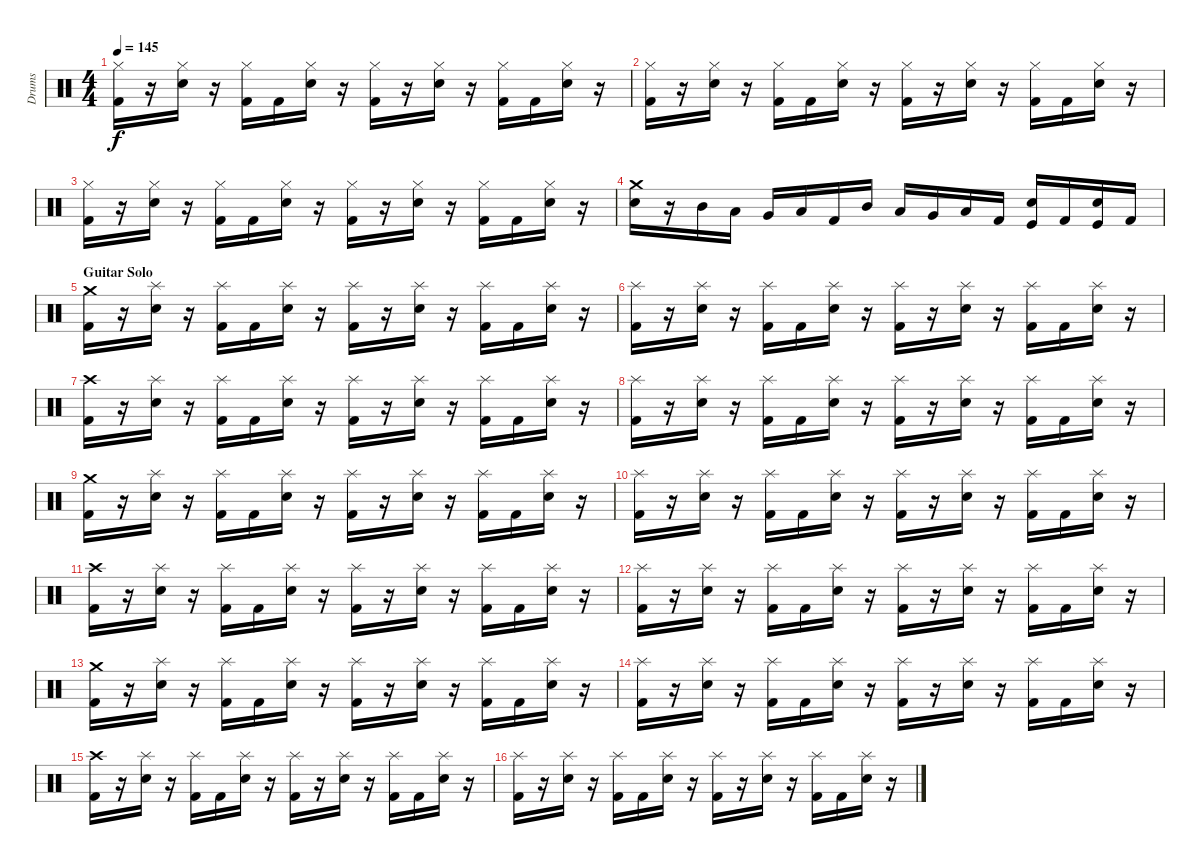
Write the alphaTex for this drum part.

\track ("Drums" "Drums") {instrument percussion}
\staff {score}
\articulation defaults
\ts (4 4)
\tempo 145
\clef neutral
\ks c
("Hi-Hat (closed)" "Kick (hit) 2").16{dy f} r.16 ("Hi-Hat (closed)" "Snare (hit) 2").16 r.16 ("Hi-Hat (closed)" "Kick (hit) 2").16 "Kick (hit) 2".16 ("Hi-Hat (closed)" "Snare (hit) 2").16 r.16 ("Hi-Hat (closed)" "Kick (hit) 2").16 r.16 ("Hi-Hat (closed)" "Snare (hit) 2").16 r.16 ("Hi-Hat (closed)" "Kick (hit) 2").16 "Kick (hit) 2".16 ("Hi-Hat (closed)" "Snare (hit) 2").16 r.16 |
("Hi-Hat (closed)" "Kick (hit) 2").16 r.16 ("Hi-Hat (closed)" "Snare (hit) 2").16 r.16 ("Hi-Hat (closed)" "Kick (hit) 2").16 "Kick (hit) 2".16 ("Hi-Hat (closed)" "Snare (hit) 2").16 r.16 ("Hi-Hat (closed)" "Kick (hit) 2").16 r.16 ("Hi-Hat (closed)" "Snare (hit) 2").16 r.16 ("Hi-Hat (closed)" "Kick (hit) 2").16 "Kick (hit) 2".16 ("Hi-Hat (closed)" "Snare (hit) 2").16 r.16 |
("Hi-Hat (closed)" "Kick (hit) 2").16 r.16 ("Hi-Hat (closed)" "Snare (hit) 2").16 r.16 ("Hi-Hat (closed)" "Kick (hit) 2").16 "Kick (hit) 2".16 ("Hi-Hat (closed)" "Snare (hit) 2").16 r.16 ("Hi-Hat (closed)" "Kick (hit) 2").16 r.16 ("Hi-Hat (closed)" "Snare (hit) 2").16 r.16 ("Hi-Hat (closed)" "Kick (hit) 2").16 "Kick (hit) 2".16 ("Hi-Hat (closed)" "Snare (hit) 2").16 r.16 |
("Crash medium (hit)" "Snare (hit) 2").16 r.16 "Mid Tom (hit)".16 "Low Tom (hit)".16 "Very Low Tom (hit)".16 "Low Floor Tom (hit)".16 "Kick (hit) 2".16 "Mid Tom (hit)".16 "Low Tom (hit)".16 "Very Low Tom (hit)".16 "Low Floor Tom (hit)".16 "Kick (hit) 2".16 ("Snare (hit) 2" "Kick (hit)").16 "Kick (hit) 2".16 ("Snare (hit) 2" "Kick (hit)").16 "Kick (hit) 2".16 |
\section ("" "Guitar Solo")
("Crash medium (hit)" "Kick (hit) 2").16 r.16 ("Splash (hit)" "Snare (hit) 2").16 r.16 ("Splash (hit)" "Kick (hit) 2").16 "Kick (hit) 2".16 ("Splash (hit)" "Snare (hit) 2").16 r.16 ("Splash (hit)" "Kick (hit) 2").16 r.16 ("Splash (hit)" "Snare (hit) 2").16 r.16 ("Splash (hit)" "Kick (hit) 2").16 "Kick (hit) 2".16 ("Splash (hit)" "Snare (hit) 2").16 r.16 |
("Splash (hit)" "Kick (hit) 2").16 r.16 ("Splash (hit)" "Snare (hit) 2").16 r.16 ("Splash (hit)" "Kick (hit) 2").16 "Kick (hit) 2".16 ("Splash (hit)" "Snare (hit) 2").16 r.16 ("Splash (hit)" "Kick (hit) 2").16 r.16 ("Splash (hit)" "Snare (hit) 2").16 r.16 ("Splash (hit)" "Kick (hit) 2").16 "Kick (hit) 2".16 ("Splash (hit)" "Snare (hit) 2").16 r.16 |
("Crash high (hit)" "Kick (hit) 2").16 r.16 ("Splash (hit)" "Snare (hit) 2").16 r.16 ("Splash (hit)" "Kick (hit) 2").16 "Kick (hit) 2".16 ("Splash (hit)" "Snare (hit) 2").16 r.16 ("Splash (hit)" "Kick (hit) 2").16 r.16 ("Splash (hit)" "Snare (hit) 2").16 r.16 ("Splash (hit)" "Kick (hit) 2").16 "Kick (hit) 2".16 ("Splash (hit)" "Snare (hit) 2").16 r.16 |
("Splash (hit)" "Kick (hit) 2").16 r.16 ("Splash (hit)" "Snare (hit) 2").16 r.16 ("Splash (hit)" "Kick (hit) 2").16 "Kick (hit) 2".16 ("Splash (hit)" "Snare (hit) 2").16 r.16 ("Splash (hit)" "Kick (hit) 2").16 r.16 ("Splash (hit)" "Snare (hit) 2").16 r.16 ("Splash (hit)" "Kick (hit) 2").16 "Kick (hit) 2".16 ("Splash (hit)" "Snare (hit) 2").16 r.16 |
("Crash medium (hit)" "Kick (hit) 2").16 r.16 ("Splash (hit)" "Snare (hit) 2").16 r.16 ("Splash (hit)" "Kick (hit) 2").16 "Kick (hit) 2".16 ("Splash (hit)" "Snare (hit) 2").16 r.16 ("Splash (hit)" "Kick (hit) 2").16 r.16 ("Splash (hit)" "Snare (hit) 2").16 r.16 ("Splash (hit)" "Kick (hit) 2").16 "Kick (hit) 2".16 ("Splash (hit)" "Snare (hit) 2").16 r.16 |
("Splash (hit)" "Kick (hit) 2").16 r.16 ("Splash (hit)" "Snare (hit) 2").16 r.16 ("Splash (hit)" "Kick (hit) 2").16 "Kick (hit) 2".16 ("Splash (hit)" "Snare (hit) 2").16 r.16 ("Splash (hit)" "Kick (hit) 2").16 r.16 ("Splash (hit)" "Snare (hit) 2").16 r.16 ("Splash (hit)" "Kick (hit) 2").16 "Kick (hit) 2".16 ("Splash (hit)" "Snare (hit) 2").16 r.16 |
("Crash high (hit)" "Kick (hit) 2").16 r.16 ("Splash (hit)" "Snare (hit) 2").16 r.16 ("Splash (hit)" "Kick (hit) 2").16 "Kick (hit) 2".16 ("Splash (hit)" "Snare (hit) 2").16 r.16 ("Splash (hit)" "Kick (hit) 2").16 r.16 ("Splash (hit)" "Snare (hit) 2").16 r.16 ("Splash (hit)" "Kick (hit) 2").16 "Kick (hit) 2".16 ("Splash (hit)" "Snare (hit) 2").16 r.16 |
("Splash (hit)" "Kick (hit) 2").16 r.16 ("Splash (hit)" "Snare (hit) 2").16 r.16 ("Splash (hit)" "Kick (hit) 2").16 "Kick (hit) 2".16 ("Splash (hit)" "Snare (hit) 2").16 r.16 ("Splash (hit)" "Kick (hit) 2").16 r.16 ("Splash (hit)" "Snare (hit) 2").16 r.16 ("Splash (hit)" "Kick (hit) 2").16 "Kick (hit) 2".16 ("Splash (hit)" "Snare (hit) 2").16 r.16 |
("Crash medium (hit)" "Kick (hit) 2").16 r.16 ("Splash (hit)" "Snare (hit) 2").16 r.16 ("Splash (hit)" "Kick (hit) 2").16 "Kick (hit) 2".16 ("Splash (hit)" "Snare (hit) 2").16 r.16 ("Splash (hit)" "Kick (hit) 2").16 r.16 ("Splash (hit)" "Snare (hit) 2").16 r.16 ("Splash (hit)" "Kick (hit) 2").16 "Kick (hit) 2".16 ("Splash (hit)" "Snare (hit) 2").16 r.16 |
("Splash (hit)" "Kick (hit) 2").16 r.16 ("Splash (hit)" "Snare (hit) 2").16 r.16 ("Splash (hit)" "Kick (hit) 2").16 "Kick (hit) 2".16 ("Splash (hit)" "Snare (hit) 2").16 r.16 ("Splash (hit)" "Kick (hit) 2").16 r.16 ("Splash (hit)" "Snare (hit) 2").16 r.16 ("Splash (hit)" "Kick (hit) 2").16 "Kick (hit) 2".16 ("Splash (hit)" "Snare (hit) 2").16 r.16 |
("Crash high (hit)" "Kick (hit) 2").16 r.16 ("Splash (hit)" "Snare (hit) 2").16 r.16 ("Splash (hit)" "Kick (hit) 2").16 "Kick (hit) 2".16 ("Splash (hit)" "Snare (hit) 2").16 r.16 ("Splash (hit)" "Kick (hit) 2").16 r.16 ("Splash (hit)" "Snare (hit) 2").16 r.16 ("Splash (hit)" "Kick (hit) 2").16 "Kick (hit) 2".16 ("Splash (hit)" "Snare (hit) 2").16 r.16 |
("Splash (hit)" "Kick (hit) 2").16 r.16 ("Splash (hit)" "Snare (hit) 2").16 r.16 ("Splash (hit)" "Kick (hit) 2").16 "Kick (hit) 2".16 ("Splash (hit)" "Snare (hit) 2").16 r.16 ("Splash (hit)" "Kick (hit) 2").16 r.16 ("Splash (hit)" "Snare (hit) 2").16 r.16 ("Splash (hit)" "Kick (hit) 2").16 "Kick (hit) 2".16 ("Splash (hit)" "Snare (hit) 2").16 r.16
